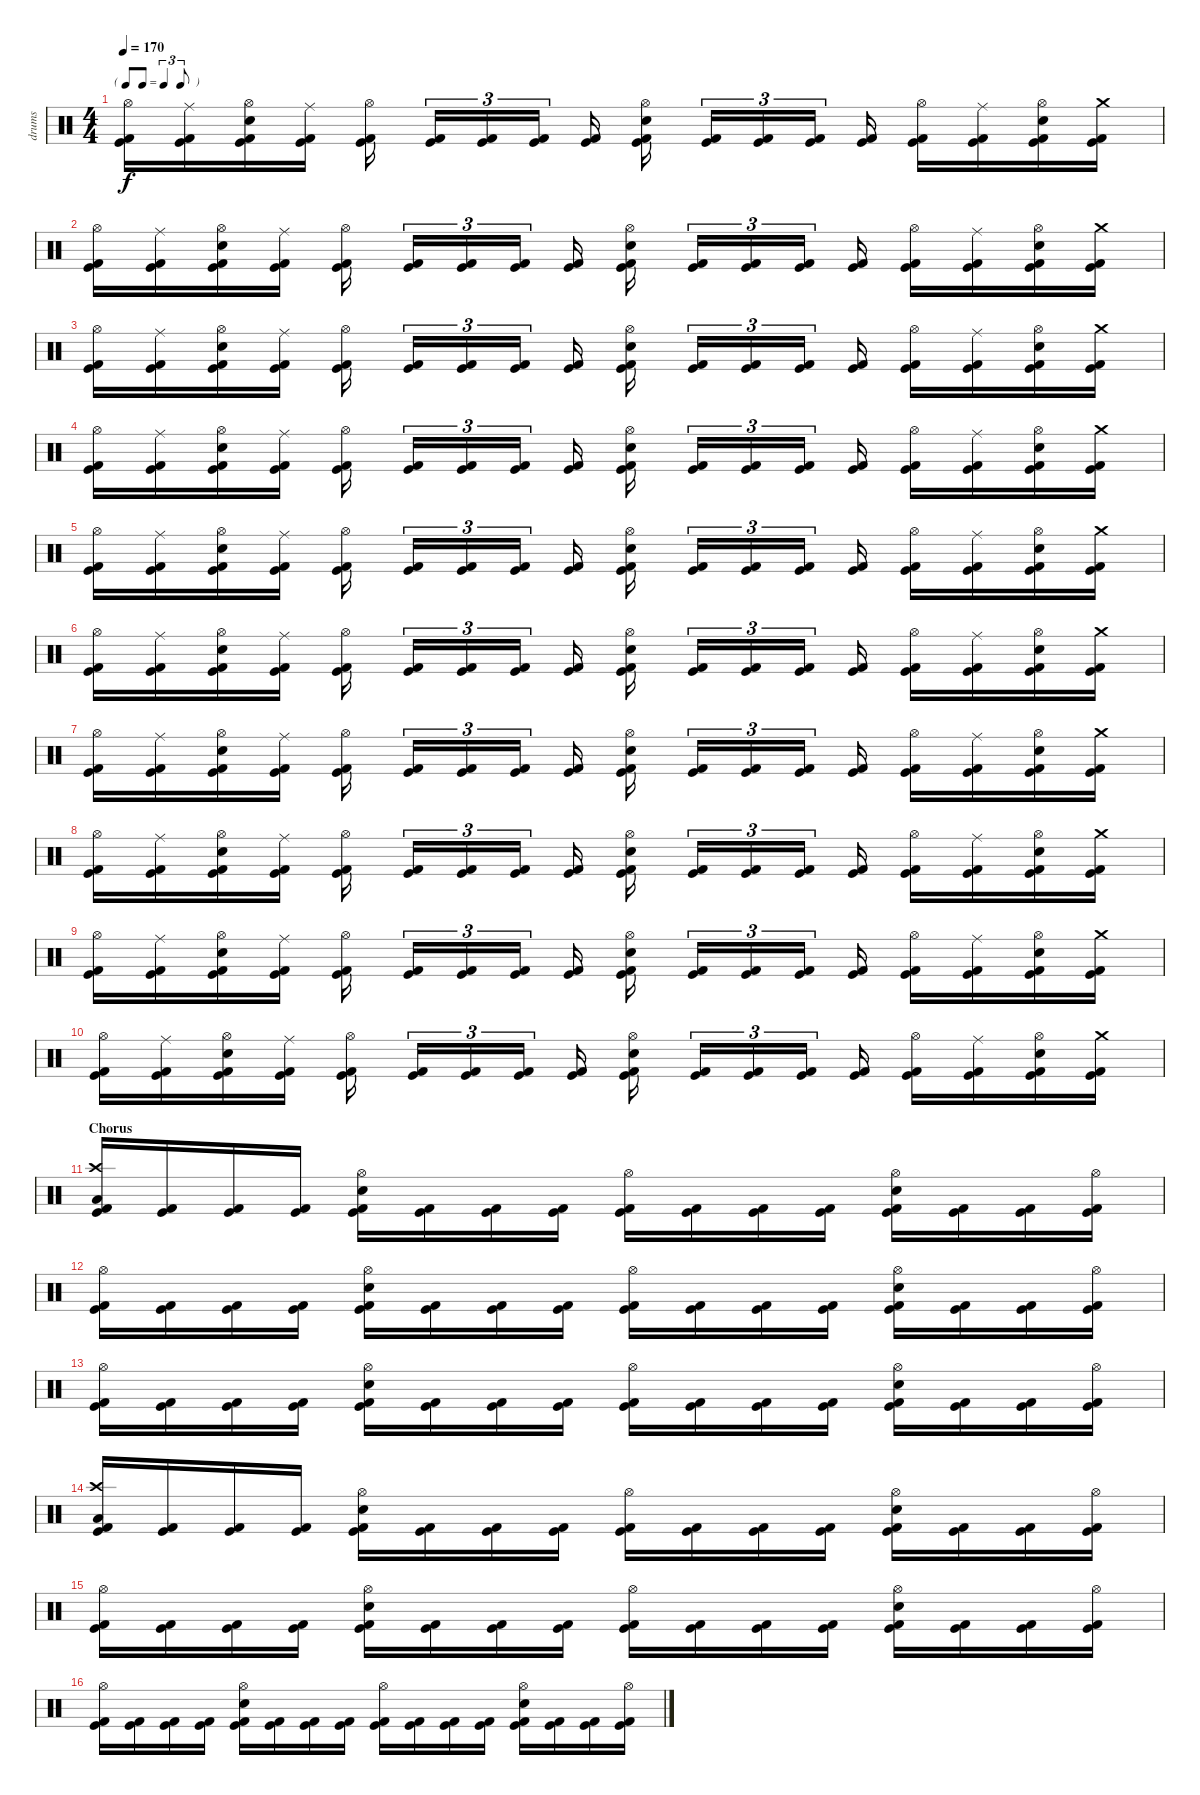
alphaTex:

\track ("drums" "drums") {instrument percussion}
\staff {score}
\articulation defaults
\ts (4 4)
\tf triplet8th
\tempo 170
\clef neutral
\ks c
("Hi-Hat (open)" "Kick (hit)" "Kick (hit) 2").16{dy f} ("Ride (middle)" "Kick (hit)" "Kick (hit) 2").16 ("Hi-Hat (open)" "Snare (hit) 2" "Kick (hit)" "Kick (hit) 2").16 ("Ride (middle)" "Kick (hit)" "Kick (hit) 2").16 ("Hi-Hat (open)" "Kick (hit)" "Kick (hit) 2").16 ("Kick (hit)" "Kick (hit) 2").16{tu (3 2)} ("Kick (hit)" "Kick (hit) 2").16{tu (3 2)} ("Kick (hit)" "Kick (hit) 2").16{tu (3 2)} ("Kick (hit)" "Kick (hit) 2").16 ("Hi-Hat (open)" "Snare (hit) 2" "Kick (hit)" "Kick (hit) 2").16 ("Kick (hit)" "Kick (hit) 2").16{tu (3 2)} ("Kick (hit)" "Kick (hit) 2").16{tu (3 2)} ("Kick (hit)" "Kick (hit) 2").16{tu (3 2)} ("Kick (hit)" "Kick (hit) 2").16 ("Hi-Hat (open)" "Kick (hit)" "Kick (hit) 2").16 ("Ride (middle)" "Kick (hit)" "Kick (hit) 2").16 ("Hi-Hat (open)" "Snare (hit) 2" "Kick (hit)" "Kick (hit) 2").16 ("Crash medium (hit)" "Kick (hit)" "Kick (hit) 2").16 |
("Hi-Hat (open)" "Kick (hit)" "Kick (hit) 2").16 ("Ride (middle)" "Kick (hit)" "Kick (hit) 2").16 ("Hi-Hat (open)" "Snare (hit) 2" "Kick (hit)" "Kick (hit) 2").16 ("Ride (middle)" "Kick (hit)" "Kick (hit) 2").16 ("Hi-Hat (open)" "Kick (hit)" "Kick (hit) 2").16 ("Kick (hit)" "Kick (hit) 2").16{tu (3 2)} ("Kick (hit)" "Kick (hit) 2").16{tu (3 2)} ("Kick (hit)" "Kick (hit) 2").16{tu (3 2)} ("Kick (hit)" "Kick (hit) 2").16 ("Hi-Hat (open)" "Snare (hit) 2" "Kick (hit)" "Kick (hit) 2").16 ("Kick (hit)" "Kick (hit) 2").16{tu (3 2)} ("Kick (hit)" "Kick (hit) 2").16{tu (3 2)} ("Kick (hit)" "Kick (hit) 2").16{tu (3 2)} ("Kick (hit)" "Kick (hit) 2").16 ("Hi-Hat (open)" "Kick (hit)" "Kick (hit) 2").16 ("Ride (middle)" "Kick (hit)" "Kick (hit) 2").16 ("Hi-Hat (open)" "Snare (hit) 2" "Kick (hit)" "Kick (hit) 2").16 ("Crash medium (hit)" "Kick (hit)" "Kick (hit) 2").16 |
("Hi-Hat (open)" "Kick (hit)" "Kick (hit) 2").16 ("Ride (middle)" "Kick (hit)" "Kick (hit) 2").16 ("Hi-Hat (open)" "Snare (hit) 2" "Kick (hit)" "Kick (hit) 2").16 ("Ride (middle)" "Kick (hit)" "Kick (hit) 2").16 ("Hi-Hat (open)" "Kick (hit)" "Kick (hit) 2").16 ("Kick (hit)" "Kick (hit) 2").16{tu (3 2)} ("Kick (hit)" "Kick (hit) 2").16{tu (3 2)} ("Kick (hit)" "Kick (hit) 2").16{tu (3 2)} ("Kick (hit)" "Kick (hit) 2").16 ("Hi-Hat (open)" "Snare (hit) 2" "Kick (hit)" "Kick (hit) 2").16 ("Kick (hit)" "Kick (hit) 2").16{tu (3 2)} ("Kick (hit)" "Kick (hit) 2").16{tu (3 2)} ("Kick (hit)" "Kick (hit) 2").16{tu (3 2)} ("Kick (hit)" "Kick (hit) 2").16 ("Hi-Hat (open)" "Kick (hit)" "Kick (hit) 2").16 ("Ride (middle)" "Kick (hit)" "Kick (hit) 2").16 ("Hi-Hat (open)" "Snare (hit) 2" "Kick (hit)" "Kick (hit) 2").16 ("Crash medium (hit)" "Kick (hit)" "Kick (hit) 2").16 |
("Hi-Hat (open)" "Kick (hit)" "Kick (hit) 2").16 ("Ride (middle)" "Kick (hit)" "Kick (hit) 2").16 ("Hi-Hat (open)" "Snare (hit) 2" "Kick (hit)" "Kick (hit) 2").16 ("Ride (middle)" "Kick (hit)" "Kick (hit) 2").16 ("Hi-Hat (open)" "Kick (hit)" "Kick (hit) 2").16 ("Kick (hit)" "Kick (hit) 2").16{tu (3 2)} ("Kick (hit)" "Kick (hit) 2").16{tu (3 2)} ("Kick (hit)" "Kick (hit) 2").16{tu (3 2)} ("Kick (hit)" "Kick (hit) 2").16 ("Hi-Hat (open)" "Snare (hit) 2" "Kick (hit)" "Kick (hit) 2").16 ("Kick (hit)" "Kick (hit) 2").16{tu (3 2)} ("Kick (hit)" "Kick (hit) 2").16{tu (3 2)} ("Kick (hit)" "Kick (hit) 2").16{tu (3 2)} ("Kick (hit)" "Kick (hit) 2").16 ("Hi-Hat (open)" "Kick (hit)" "Kick (hit) 2").16 ("Ride (middle)" "Kick (hit)" "Kick (hit) 2").16 ("Hi-Hat (open)" "Snare (hit) 2" "Kick (hit)" "Kick (hit) 2").16 ("Crash medium (hit)" "Kick (hit)" "Kick (hit) 2").16 |
("Hi-Hat (open)" "Kick (hit)" "Kick (hit) 2").16 ("Ride (middle)" "Kick (hit)" "Kick (hit) 2").16 ("Hi-Hat (open)" "Snare (hit) 2" "Kick (hit)" "Kick (hit) 2").16 ("Ride (middle)" "Kick (hit)" "Kick (hit) 2").16 ("Hi-Hat (open)" "Kick (hit)" "Kick (hit) 2").16 ("Kick (hit)" "Kick (hit) 2").16{tu (3 2)} ("Kick (hit)" "Kick (hit) 2").16{tu (3 2)} ("Kick (hit)" "Kick (hit) 2").16{tu (3 2)} ("Kick (hit)" "Kick (hit) 2").16 ("Hi-Hat (open)" "Snare (hit) 2" "Kick (hit)" "Kick (hit) 2").16 ("Kick (hit)" "Kick (hit) 2").16{tu (3 2)} ("Kick (hit)" "Kick (hit) 2").16{tu (3 2)} ("Kick (hit)" "Kick (hit) 2").16{tu (3 2)} ("Kick (hit)" "Kick (hit) 2").16 ("Hi-Hat (open)" "Kick (hit)" "Kick (hit) 2").16 ("Ride (middle)" "Kick (hit)" "Kick (hit) 2").16 ("Hi-Hat (open)" "Snare (hit) 2" "Kick (hit)" "Kick (hit) 2").16 ("Crash medium (hit)" "Kick (hit)" "Kick (hit) 2").16 |
("Hi-Hat (open)" "Kick (hit)" "Kick (hit) 2").16 ("Ride (middle)" "Kick (hit)" "Kick (hit) 2").16 ("Hi-Hat (open)" "Snare (hit) 2" "Kick (hit)" "Kick (hit) 2").16 ("Ride (middle)" "Kick (hit)" "Kick (hit) 2").16 ("Hi-Hat (open)" "Kick (hit)" "Kick (hit) 2").16 ("Kick (hit)" "Kick (hit) 2").16{tu (3 2)} ("Kick (hit)" "Kick (hit) 2").16{tu (3 2)} ("Kick (hit)" "Kick (hit) 2").16{tu (3 2)} ("Kick (hit)" "Kick (hit) 2").16 ("Hi-Hat (open)" "Snare (hit) 2" "Kick (hit)" "Kick (hit) 2").16 ("Kick (hit)" "Kick (hit) 2").16{tu (3 2)} ("Kick (hit)" "Kick (hit) 2").16{tu (3 2)} ("Kick (hit)" "Kick (hit) 2").16{tu (3 2)} ("Kick (hit)" "Kick (hit) 2").16 ("Hi-Hat (open)" "Kick (hit)" "Kick (hit) 2").16 ("Ride (middle)" "Kick (hit)" "Kick (hit) 2").16 ("Hi-Hat (open)" "Snare (hit) 2" "Kick (hit)" "Kick (hit) 2").16 ("Crash medium (hit)" "Kick (hit)" "Kick (hit) 2").16 |
("Hi-Hat (open)" "Kick (hit)" "Kick (hit) 2").16 ("Ride (middle)" "Kick (hit)" "Kick (hit) 2").16 ("Hi-Hat (open)" "Snare (hit) 2" "Kick (hit)" "Kick (hit) 2").16 ("Ride (middle)" "Kick (hit)" "Kick (hit) 2").16 ("Hi-Hat (open)" "Kick (hit)" "Kick (hit) 2").16 ("Kick (hit)" "Kick (hit) 2").16{tu (3 2)} ("Kick (hit)" "Kick (hit) 2").16{tu (3 2)} ("Kick (hit)" "Kick (hit) 2").16{tu (3 2)} ("Kick (hit)" "Kick (hit) 2").16 ("Hi-Hat (open)" "Snare (hit) 2" "Kick (hit)" "Kick (hit) 2").16 ("Kick (hit)" "Kick (hit) 2").16{tu (3 2)} ("Kick (hit)" "Kick (hit) 2").16{tu (3 2)} ("Kick (hit)" "Kick (hit) 2").16{tu (3 2)} ("Kick (hit)" "Kick (hit) 2").16 ("Hi-Hat (open)" "Kick (hit)" "Kick (hit) 2").16 ("Ride (middle)" "Kick (hit)" "Kick (hit) 2").16 ("Hi-Hat (open)" "Snare (hit) 2" "Kick (hit)" "Kick (hit) 2").16 ("Crash medium (hit)" "Kick (hit)" "Kick (hit) 2").16 |
("Hi-Hat (open)" "Kick (hit)" "Kick (hit) 2").16 ("Ride (middle)" "Kick (hit)" "Kick (hit) 2").16 ("Hi-Hat (open)" "Snare (hit) 2" "Kick (hit)" "Kick (hit) 2").16 ("Ride (middle)" "Kick (hit)" "Kick (hit) 2").16 ("Hi-Hat (open)" "Kick (hit)" "Kick (hit) 2").16 ("Kick (hit)" "Kick (hit) 2").16{tu (3 2)} ("Kick (hit)" "Kick (hit) 2").16{tu (3 2)} ("Kick (hit)" "Kick (hit) 2").16{tu (3 2)} ("Kick (hit)" "Kick (hit) 2").16 ("Hi-Hat (open)" "Snare (hit) 2" "Kick (hit)" "Kick (hit) 2").16 ("Kick (hit)" "Kick (hit) 2").16{tu (3 2)} ("Kick (hit)" "Kick (hit) 2").16{tu (3 2)} ("Kick (hit)" "Kick (hit) 2").16{tu (3 2)} ("Kick (hit)" "Kick (hit) 2").16 ("Hi-Hat (open)" "Kick (hit)" "Kick (hit) 2").16 ("Ride (middle)" "Kick (hit)" "Kick (hit) 2").16 ("Hi-Hat (open)" "Snare (hit) 2" "Kick (hit)" "Kick (hit) 2").16 ("Crash medium (hit)" "Kick (hit)" "Kick (hit) 2").16 |
("Hi-Hat (open)" "Kick (hit)" "Kick (hit) 2").16 ("Ride (middle)" "Kick (hit)" "Kick (hit) 2").16 ("Hi-Hat (open)" "Snare (hit) 2" "Kick (hit)" "Kick (hit) 2").16 ("Ride (middle)" "Kick (hit)" "Kick (hit) 2").16 ("Hi-Hat (open)" "Kick (hit)" "Kick (hit) 2").16 ("Kick (hit)" "Kick (hit) 2").16{tu (3 2)} ("Kick (hit)" "Kick (hit) 2").16{tu (3 2)} ("Kick (hit)" "Kick (hit) 2").16{tu (3 2)} ("Kick (hit)" "Kick (hit) 2").16 ("Hi-Hat (open)" "Snare (hit) 2" "Kick (hit)" "Kick (hit) 2").16 ("Kick (hit)" "Kick (hit) 2").16{tu (3 2)} ("Kick (hit)" "Kick (hit) 2").16{tu (3 2)} ("Kick (hit)" "Kick (hit) 2").16{tu (3 2)} ("Kick (hit)" "Kick (hit) 2").16 ("Hi-Hat (open)" "Kick (hit)" "Kick (hit) 2").16 ("Ride (middle)" "Kick (hit)" "Kick (hit) 2").16 ("Hi-Hat (open)" "Snare (hit) 2" "Kick (hit)" "Kick (hit) 2").16 ("Crash medium (hit)" "Kick (hit)" "Kick (hit) 2").16 |
("Hi-Hat (open)" "Kick (hit)" "Kick (hit) 2").16 ("Ride (middle)" "Kick (hit)" "Kick (hit) 2").16 ("Hi-Hat (open)" "Snare (hit) 2" "Kick (hit)" "Kick (hit) 2").16 ("Ride (middle)" "Kick (hit)" "Kick (hit) 2").16 ("Hi-Hat (open)" "Kick (hit)" "Kick (hit) 2").16 ("Kick (hit)" "Kick (hit) 2").16{tu (3 2)} ("Kick (hit)" "Kick (hit) 2").16{tu (3 2)} ("Kick (hit)" "Kick (hit) 2").16{tu (3 2)} ("Kick (hit)" "Kick (hit) 2").16 ("Hi-Hat (open)" "Snare (hit) 2" "Kick (hit)" "Kick (hit) 2").16 ("Kick (hit)" "Kick (hit) 2").16{tu (3 2)} ("Kick (hit)" "Kick (hit) 2").16{tu (3 2)} ("Kick (hit)" "Kick (hit) 2").16{tu (3 2)} ("Kick (hit)" "Kick (hit) 2").16 ("Hi-Hat (open)" "Kick (hit)" "Kick (hit) 2").16 ("Ride (middle)" "Kick (hit)" "Kick (hit) 2").16 ("Hi-Hat (open)" "Snare (hit) 2" "Kick (hit)" "Kick (hit) 2").16 ("Crash medium (hit)" "Kick (hit)" "Kick (hit) 2").16 |
\section ("" "Chorus")
("Crash high (hit)" "Low Floor Tom (hit)" "Kick (hit)" "Kick (hit) 2").16 ("Kick (hit)" "Kick (hit) 2").16 ("Kick (hit)" "Kick (hit) 2").16 ("Kick (hit)" "Kick (hit) 2").16 ("Hi-Hat (open)" "Snare (hit) 2" "Kick (hit)" "Kick (hit) 2").16 ("Kick (hit)" "Kick (hit) 2").16 ("Kick (hit)" "Kick (hit) 2").16 ("Kick (hit)" "Kick (hit) 2").16 ("Hi-Hat (open)" "Kick (hit)" "Kick (hit) 2").16 ("Kick (hit)" "Kick (hit) 2").16 ("Kick (hit)" "Kick (hit) 2").16 ("Kick (hit)" "Kick (hit) 2").16 ("Hi-Hat (open)" "Snare (hit) 2" "Kick (hit)" "Kick (hit) 2").16 ("Kick (hit)" "Kick (hit) 2").16 ("Kick (hit)" "Kick (hit) 2").16 ("Hi-Hat (open)" "Kick (hit)" "Kick (hit) 2").16 |
("Hi-Hat (open)" "Kick (hit)" "Kick (hit) 2").16 ("Kick (hit)" "Kick (hit) 2").16 ("Kick (hit)" "Kick (hit) 2").16 ("Kick (hit)" "Kick (hit) 2").16 ("Hi-Hat (open)" "Snare (hit) 2" "Kick (hit)" "Kick (hit) 2").16 ("Kick (hit)" "Kick (hit) 2").16 ("Kick (hit)" "Kick (hit) 2").16 ("Kick (hit)" "Kick (hit) 2").16 ("Hi-Hat (open)" "Kick (hit)" "Kick (hit) 2").16 ("Kick (hit)" "Kick (hit) 2").16 ("Kick (hit)" "Kick (hit) 2").16 ("Kick (hit)" "Kick (hit) 2").16 ("Hi-Hat (open)" "Snare (hit) 2" "Kick (hit)" "Kick (hit) 2").16 ("Kick (hit)" "Kick (hit) 2").16 ("Kick (hit)" "Kick (hit) 2").16 ("Hi-Hat (open)" "Kick (hit)" "Kick (hit) 2").16 |
("Hi-Hat (open)" "Kick (hit)" "Kick (hit) 2").16 ("Kick (hit)" "Kick (hit) 2").16 ("Kick (hit)" "Kick (hit) 2").16 ("Kick (hit)" "Kick (hit) 2").16 ("Hi-Hat (open)" "Snare (hit) 2" "Kick (hit)" "Kick (hit) 2").16 ("Kick (hit)" "Kick (hit) 2").16 ("Kick (hit)" "Kick (hit) 2").16 ("Kick (hit)" "Kick (hit) 2").16 ("Hi-Hat (open)" "Kick (hit)" "Kick (hit) 2").16 ("Kick (hit)" "Kick (hit) 2").16 ("Kick (hit)" "Kick (hit) 2").16 ("Kick (hit)" "Kick (hit) 2").16 ("Hi-Hat (open)" "Snare (hit) 2" "Kick (hit)" "Kick (hit) 2").16 ("Kick (hit)" "Kick (hit) 2").16 ("Kick (hit)" "Kick (hit) 2").16 ("Hi-Hat (open)" "Kick (hit)" "Kick (hit) 2").16 |
("Crash high (hit)" "Low Floor Tom (hit)" "Kick (hit)" "Kick (hit) 2").16 ("Kick (hit)" "Kick (hit) 2").16 ("Kick (hit)" "Kick (hit) 2").16 ("Kick (hit)" "Kick (hit) 2").16 ("Hi-Hat (open)" "Snare (hit) 2" "Kick (hit)" "Kick (hit) 2").16 ("Kick (hit)" "Kick (hit) 2").16 ("Kick (hit)" "Kick (hit) 2").16 ("Kick (hit)" "Kick (hit) 2").16 ("Hi-Hat (open)" "Kick (hit)" "Kick (hit) 2").16 ("Kick (hit)" "Kick (hit) 2").16 ("Kick (hit)" "Kick (hit) 2").16 ("Kick (hit)" "Kick (hit) 2").16 ("Hi-Hat (open)" "Snare (hit) 2" "Kick (hit)" "Kick (hit) 2").16 ("Kick (hit)" "Kick (hit) 2").16 ("Kick (hit)" "Kick (hit) 2").16 ("Hi-Hat (open)" "Kick (hit)" "Kick (hit) 2").16 |
("Hi-Hat (open)" "Kick (hit)" "Kick (hit) 2").16 ("Kick (hit)" "Kick (hit) 2").16 ("Kick (hit)" "Kick (hit) 2").16 ("Kick (hit)" "Kick (hit) 2").16 ("Hi-Hat (open)" "Snare (hit) 2" "Kick (hit)" "Kick (hit) 2").16 ("Kick (hit)" "Kick (hit) 2").16 ("Kick (hit)" "Kick (hit) 2").16 ("Kick (hit)" "Kick (hit) 2").16 ("Hi-Hat (open)" "Kick (hit)" "Kick (hit) 2").16 ("Kick (hit)" "Kick (hit) 2").16 ("Kick (hit)" "Kick (hit) 2").16 ("Kick (hit)" "Kick (hit) 2").16 ("Hi-Hat (open)" "Snare (hit) 2" "Kick (hit)" "Kick (hit) 2").16 ("Kick (hit)" "Kick (hit) 2").16 ("Kick (hit)" "Kick (hit) 2").16 ("Hi-Hat (open)" "Kick (hit)" "Kick (hit) 2").16 |
("Hi-Hat (open)" "Kick (hit)" "Kick (hit) 2").16 ("Kick (hit)" "Kick (hit) 2").16 ("Kick (hit)" "Kick (hit) 2").16 ("Kick (hit)" "Kick (hit) 2").16 ("Hi-Hat (open)" "Snare (hit) 2" "Kick (hit)" "Kick (hit) 2").16 ("Kick (hit)" "Kick (hit) 2").16 ("Kick (hit)" "Kick (hit) 2").16 ("Kick (hit)" "Kick (hit) 2").16 ("Hi-Hat (open)" "Kick (hit)" "Kick (hit) 2").16 ("Kick (hit)" "Kick (hit) 2").16 ("Kick (hit)" "Kick (hit) 2").16 ("Kick (hit)" "Kick (hit) 2").16 ("Hi-Hat (open)" "Snare (hit) 2" "Kick (hit)" "Kick (hit) 2").16 ("Kick (hit)" "Kick (hit) 2").16 ("Kick (hit)" "Kick (hit) 2").16 ("Hi-Hat (open)" "Kick (hit)" "Kick (hit) 2").16
